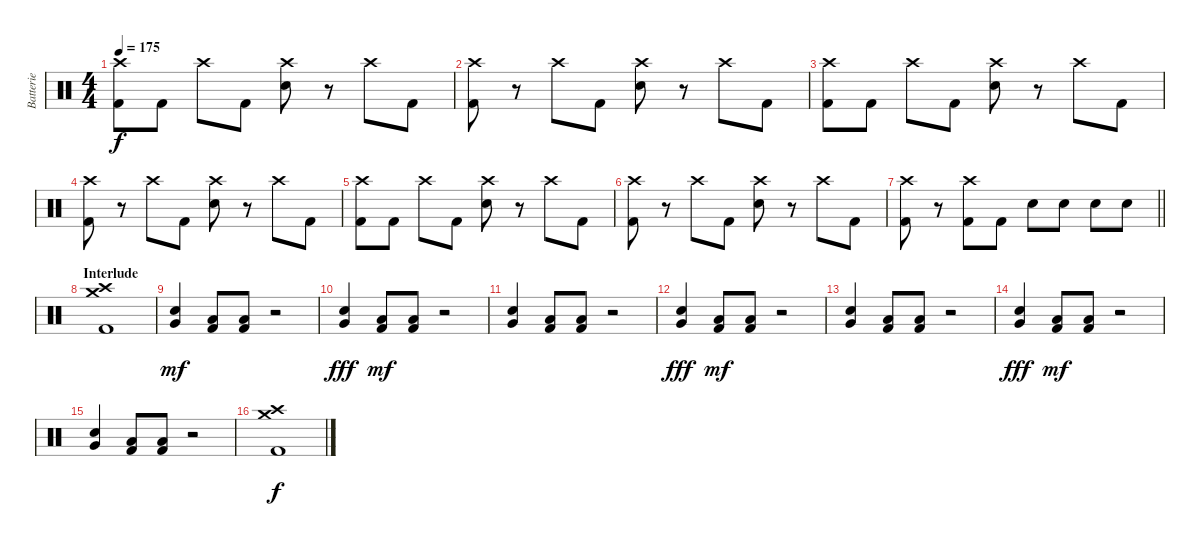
\track ("Batterie" "Batterie") {instrument percussion}
\staff {score}
\articulation defaults
\ts (4 4)
\tempo 175
\clef neutral
\ks c
("Kick (hit) 2" "Crash high (hit)").8{dy f} "Kick (hit) 2".8 "Crash high (hit)".8 "Kick (hit) 2".8 ("Electric Snare (hit)" "Crash high (hit)").8 r.8 "Crash high (hit)".8 "Kick (hit) 2".8 |
("Kick (hit) 2" "Crash high (hit)").8 r.8 "Crash high (hit)".8 "Kick (hit) 2".8 ("Electric Snare (hit)" "Crash high (hit)").8 r.8 "Crash high (hit)".8 "Kick (hit) 2".8 |
("Kick (hit) 2" "Crash high (hit)").8 "Kick (hit) 2".8 "Crash high (hit)".8 "Kick (hit) 2".8 ("Electric Snare (hit)" "Crash high (hit)").8 r.8 "Crash high (hit)".8 "Kick (hit) 2".8 |
("Kick (hit) 2" "Crash high (hit)").8 r.8 "Crash high (hit)".8 "Kick (hit) 2".8 ("Electric Snare (hit)" "Crash high (hit)").8 r.8 "Crash high (hit)".8 "Kick (hit) 2".8 |
("Kick (hit) 2" "Crash high (hit)").8 "Kick (hit) 2".8 "Crash high (hit)".8 "Kick (hit) 2".8 ("Electric Snare (hit)" "Crash high (hit)").8 r.8 "Crash high (hit)".8 "Kick (hit) 2".8 |
("Kick (hit) 2" "Crash high (hit)").8 r.8 "Crash high (hit)".8 "Kick (hit) 2".8 ("Electric Snare (hit)" "Crash high (hit)").8 r.8 "Crash high (hit)".8 "Kick (hit) 2".8 |
\barLineRight lightlight
("Kick (hit) 2" "Crash high (hit)").8 r.8 ("Kick (hit) 2" "Crash high (hit)").8 "Kick (hit) 2".8 "Electric Snare (hit)".8 "Electric Snare (hit)".8 "Electric Snare (hit)".8 "Electric Snare (hit)".8 |
\section ("" "Interlude")
("Kick (hit) 2" "Crash medium (hit)" "Crash high (hit)").1 |
("Electric Snare (hit)" "Very Low Tom (hit)").4{dy mf} ("Kick (hit) 2" "Low Floor Tom (hit)").8 ("Kick (hit) 2" "Low Floor Tom (hit)").8 r.2 |
("Electric Snare (hit)" "Very Low Tom (hit)").4{dy fff} ("Kick (hit) 2" "Low Floor Tom (hit)").8{dy mf} ("Kick (hit) 2" "Low Floor Tom (hit)").8 r.2 |
("Electric Snare (hit)" "Very Low Tom (hit)").4 ("Kick (hit) 2" "Low Floor Tom (hit)").8 ("Kick (hit) 2" "Low Floor Tom (hit)").8 r.2 |
("Electric Snare (hit)" "Very Low Tom (hit)").4{dy fff} ("Kick (hit) 2" "Low Floor Tom (hit)").8{dy mf} ("Kick (hit) 2" "Low Floor Tom (hit)").8 r.2 |
("Electric Snare (hit)" "Very Low Tom (hit)").4 ("Kick (hit) 2" "Low Floor Tom (hit)").8 ("Kick (hit) 2" "Low Floor Tom (hit)").8 r.2 |
("Electric Snare (hit)" "Very Low Tom (hit)").4{dy fff} ("Kick (hit) 2" "Low Floor Tom (hit)").8{dy mf} ("Kick (hit) 2" "Low Floor Tom (hit)").8 r.2 |
("Electric Snare (hit)" "Very Low Tom (hit)").4 ("Kick (hit) 2" "Low Floor Tom (hit)").8 ("Kick (hit) 2" "Low Floor Tom (hit)").8 r.2 |
("Kick (hit) 2" "Crash medium (hit)" "Crash high (hit)").1{dy f}
